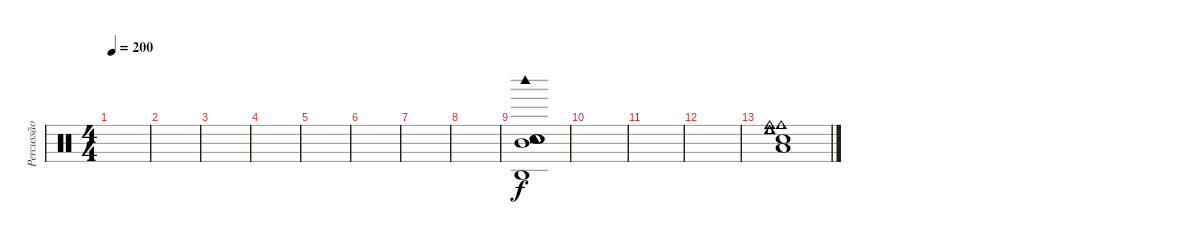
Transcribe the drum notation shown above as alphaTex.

\track ("Percussão" "Percussão") {instrument percussion}
\staff {score}
\articulation defaults
\ts (4 4)
\tempo 200
\clef neutral
\ks c
|
|
|
|
|
|
|
|
("Mid Tom (hit)" "Tambourine (hit)" "Snare (hit)" "Woodblock high (hit)" "Snare (hit)" "Agogo high (hit)").1 |
|
|
|
("Snare (hit)" "Cowbell low (hit)" "Cowbell medium (hit)" "Low Tom (hit)" "Cowbell low (hit)" "Cowbell medium (hit)").1
